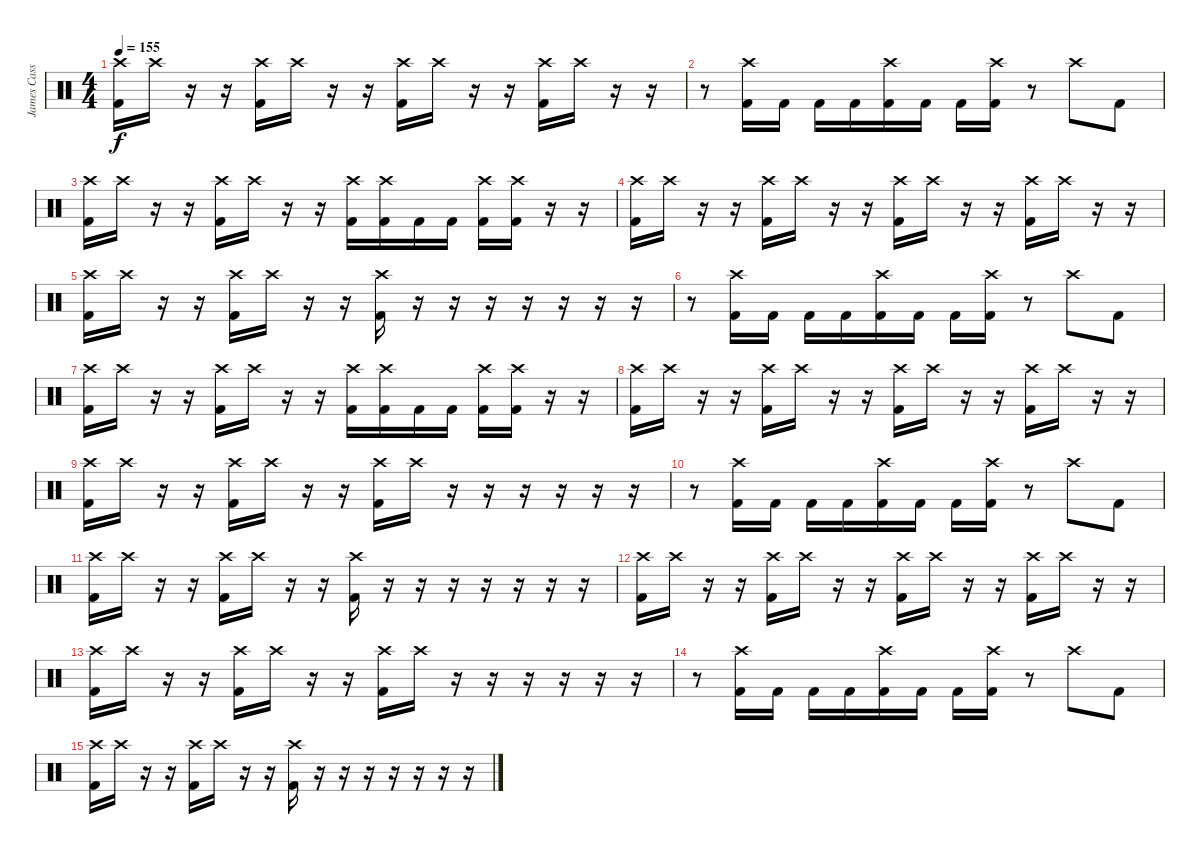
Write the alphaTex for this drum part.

\track ("James Cassels" "James Cass") {instrument percussion}
\staff {score}
\articulation defaults
\ts (4 4)
\tempo 155
\clef neutral
\ks c
("Kick (hit) 2" "Crash high (hit)").16{dy f} "Crash high (hit)".16 r.16 r.16 ("Kick (hit) 2" "Crash high (hit)").16 "Crash high (hit)".16 r.16 r.16 ("Kick (hit) 2" "Crash high (hit)").16 "Crash high (hit)".16 r.16 r.16 ("Crash high (hit)" "Kick (hit) 2").16 "Crash high (hit)".16 r.16 r.16 |
r.8 ("Crash high (hit)" "Kick (hit) 2").16 "Kick (hit) 2".16 "Kick (hit) 2".16 "Kick (hit) 2".16 ("Crash high (hit)" "Kick (hit) 2").16 "Kick (hit) 2".16 "Kick (hit) 2".16 ("Crash high (hit)" "Kick (hit) 2").16 r.8 "Crash high (hit)".8 "Kick (hit) 2".8 |
("Kick (hit) 2" "Crash high (hit)").16 "Crash high (hit)".16 r.16 r.16 ("Kick (hit) 2" "Crash high (hit)").16 "Crash high (hit)".16 r.16 r.16 ("Kick (hit) 2" "Crash high (hit)").16 ("Kick (hit) 2" "Crash high (hit)").16 "Kick (hit) 2".16 "Kick (hit) 2".16 ("Crash high (hit)" "Kick (hit) 2").16 ("Kick (hit) 2" "Crash high (hit)").16 r.16 r.16 |
("Kick (hit) 2" "Crash high (hit)").16 "Crash high (hit)".16 r.16 r.16 ("Kick (hit) 2" "Crash high (hit)").16 "Crash high (hit)".16 r.16 r.16 ("Kick (hit) 2" "Crash high (hit)").16 "Crash high (hit)".16 r.16 r.16 ("Crash high (hit)" "Kick (hit) 2").16 "Crash high (hit)".16 r.16 r.16 |
("Kick (hit) 2" "Crash high (hit)").16 "Crash high (hit)".16 r.16 r.16 ("Kick (hit) 2" "Crash high (hit)").16 "Crash high (hit)".16 r.16 r.16 ("Kick (hit) 2" "Crash high (hit)").16 r.16 r.16 r.16 r.16 r.16 r.16 r.16 |
r.8 ("Crash high (hit)" "Kick (hit) 2").16 "Kick (hit) 2".16 "Kick (hit) 2".16 "Kick (hit) 2".16 ("Crash high (hit)" "Kick (hit) 2").16 "Kick (hit) 2".16 "Kick (hit) 2".16 ("Crash high (hit)" "Kick (hit) 2").16 r.8 "Crash high (hit)".8 "Kick (hit) 2".8 |
("Kick (hit) 2" "Crash high (hit)").16 "Crash high (hit)".16 r.16 r.16 ("Kick (hit) 2" "Crash high (hit)").16 "Crash high (hit)".16 r.16 r.16 ("Kick (hit) 2" "Crash high (hit)").16 ("Kick (hit) 2" "Crash high (hit)").16 "Kick (hit) 2".16 "Kick (hit) 2".16 ("Crash high (hit)" "Kick (hit) 2").16 ("Kick (hit) 2" "Crash high (hit)").16 r.16 r.16 |
("Kick (hit) 2" "Crash high (hit)").16 "Crash high (hit)".16 r.16 r.16 ("Kick (hit) 2" "Crash high (hit)").16 "Crash high (hit)".16 r.16 r.16 ("Kick (hit) 2" "Crash high (hit)").16 "Crash high (hit)".16 r.16 r.16 ("Crash high (hit)" "Kick (hit) 2").16 "Crash high (hit)".16 r.16 r.16 |
("Kick (hit) 2" "Crash high (hit)").16 "Crash high (hit)".16 r.16 r.16 ("Kick (hit) 2" "Crash high (hit)").16 "Crash high (hit)".16 r.16 r.16 ("Kick (hit) 2" "Crash high (hit)").16 "Crash high (hit)".16 r.16 r.16 r.16 r.16 r.16 r.16 |
r.8 ("Crash high (hit)" "Kick (hit) 2").16 "Kick (hit) 2".16 "Kick (hit) 2".16 "Kick (hit) 2".16 ("Crash high (hit)" "Kick (hit) 2").16 "Kick (hit) 2".16 "Kick (hit) 2".16 ("Crash high (hit)" "Kick (hit) 2").16 r.8 "Crash high (hit)".8 "Kick (hit) 2".8 |
("Kick (hit) 2" "Crash high (hit)").16 "Crash high (hit)".16 r.16 r.16 ("Kick (hit) 2" "Crash high (hit)").16 "Crash high (hit)".16 r.16 r.16 ("Kick (hit) 2" "Crash high (hit)").16 r.16 r.16 r.16 r.16 r.16 r.16 r.16 |
("Kick (hit) 2" "Crash high (hit)").16 "Crash high (hit)".16 r.16 r.16 ("Kick (hit) 2" "Crash high (hit)").16 "Crash high (hit)".16 r.16 r.16 ("Kick (hit) 2" "Crash high (hit)").16 "Crash high (hit)".16 r.16 r.16 ("Crash high (hit)" "Kick (hit) 2").16 "Crash high (hit)".16 r.16 r.16 |
("Kick (hit) 2" "Crash high (hit)").16 "Crash high (hit)".16 r.16 r.16 ("Kick (hit) 2" "Crash high (hit)").16 "Crash high (hit)".16 r.16 r.16 ("Kick (hit) 2" "Crash high (hit)").16 "Crash high (hit)".16 r.16 r.16 r.16 r.16 r.16 r.16 |
r.8 ("Crash high (hit)" "Kick (hit) 2").16 "Kick (hit) 2".16 "Kick (hit) 2".16 "Kick (hit) 2".16 ("Crash high (hit)" "Kick (hit) 2").16 "Kick (hit) 2".16 "Kick (hit) 2".16 ("Crash high (hit)" "Kick (hit) 2").16 r.8 "Crash high (hit)".8 "Kick (hit) 2".8 |
("Kick (hit) 2" "Crash high (hit)").16 "Crash high (hit)".16 r.16 r.16 ("Kick (hit) 2" "Crash high (hit)").16 "Crash high (hit)".16 r.16 r.16 ("Kick (hit) 2" "Crash high (hit)").16 r.16 r.16 r.16 r.16 r.16 r.16 r.16
